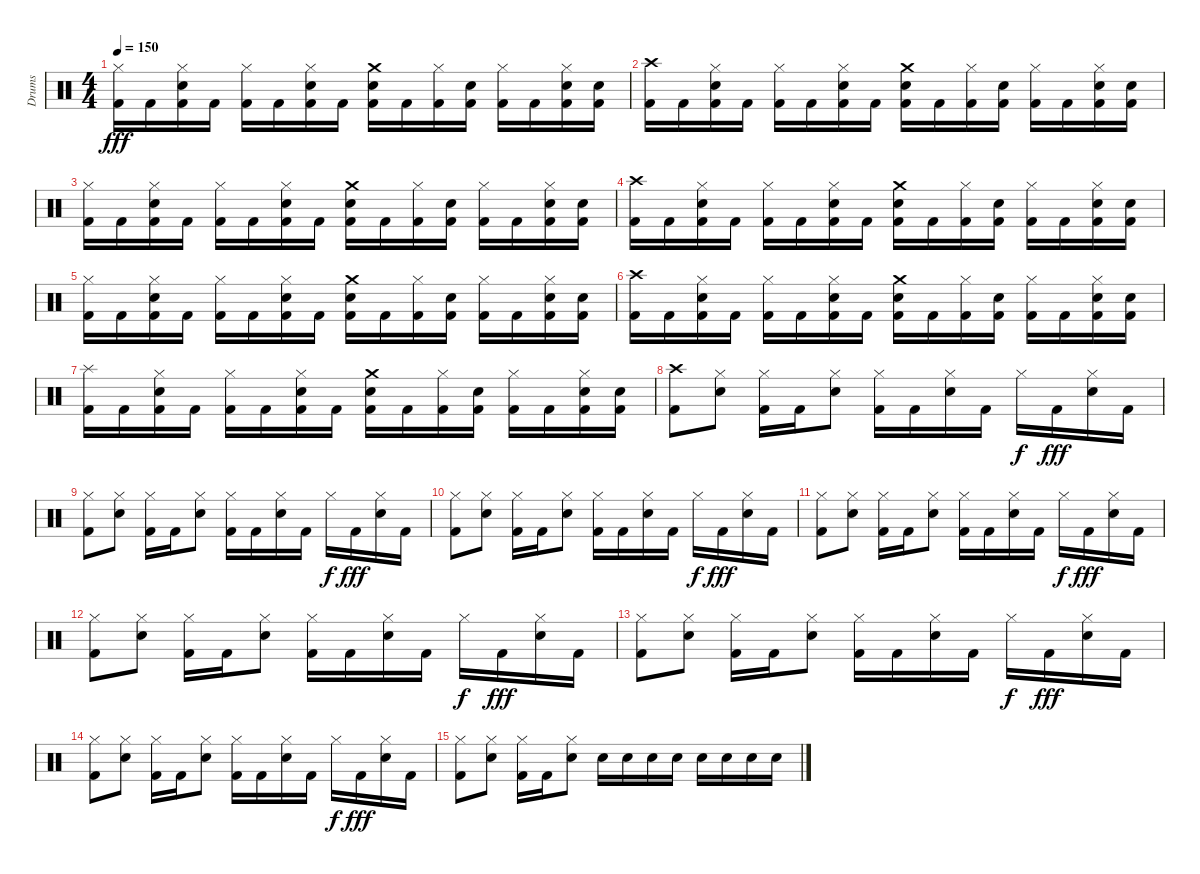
\track ("Drums" "Drums") {instrument percussion}
\staff {score}
\articulation defaults
\ts (4 4)
\tempo 150
\clef neutral
\ks c
("Kick (hit) 2" "Hi-Hat (closed)").16{dy fff} "Kick (hit) 2".16 ("Kick (hit) 2" "Hi-Hat (closed)" "Snare (hit) 2").16 "Kick (hit) 2".16 ("Kick (hit) 2" "Hi-Hat (closed)").16 "Kick (hit) 2".16 ("Kick (hit) 2" "Hi-Hat (closed)" "Snare (hit) 2").16 "Kick (hit) 2".16 ("Kick (hit) 2" "Crash medium (hit)" "Snare (hit) 2").16 "Kick (hit) 2".16 ("Kick (hit) 2" "Hi-Hat (closed)").16 ("Kick (hit) 2" "Snare (hit) 2").16 ("Kick (hit) 2" "Hi-Hat (closed)").16 "Kick (hit) 2".16 ("Kick (hit) 2" "Hi-Hat (closed)" "Snare (hit) 2").16 ("Kick (hit) 2" "Snare (hit) 2").16 |
("Kick (hit) 2" "Crash high (hit)").16 "Kick (hit) 2".16 ("Kick (hit) 2" "Hi-Hat (closed)" "Snare (hit) 2").16 "Kick (hit) 2".16 ("Kick (hit) 2" "Hi-Hat (closed)").16 "Kick (hit) 2".16 ("Kick (hit) 2" "Hi-Hat (closed)" "Snare (hit) 2").16 "Kick (hit) 2".16 ("Kick (hit) 2" "Crash medium (hit)" "Snare (hit) 2").16 "Kick (hit) 2".16 ("Kick (hit) 2" "Hi-Hat (closed)").16 ("Kick (hit) 2" "Snare (hit) 2").16 ("Kick (hit) 2" "Hi-Hat (closed)").16 "Kick (hit) 2".16 ("Kick (hit) 2" "Hi-Hat (closed)" "Snare (hit) 2").16 ("Kick (hit) 2" "Snare (hit) 2").16 |
("Kick (hit) 2" "Hi-Hat (closed)").16 "Kick (hit) 2".16 ("Kick (hit) 2" "Hi-Hat (closed)" "Snare (hit) 2").16 "Kick (hit) 2".16 ("Kick (hit) 2" "Hi-Hat (closed)").16 "Kick (hit) 2".16 ("Kick (hit) 2" "Hi-Hat (closed)" "Snare (hit) 2").16 "Kick (hit) 2".16 ("Kick (hit) 2" "Crash medium (hit)" "Snare (hit) 2").16 "Kick (hit) 2".16 ("Kick (hit) 2" "Hi-Hat (closed)").16 ("Kick (hit) 2" "Snare (hit) 2").16 ("Kick (hit) 2" "Hi-Hat (closed)").16 "Kick (hit) 2".16 ("Kick (hit) 2" "Hi-Hat (closed)" "Snare (hit) 2").16 ("Kick (hit) 2" "Snare (hit) 2").16 |
("Kick (hit) 2" "Crash high (hit)").16 "Kick (hit) 2".16 ("Kick (hit) 2" "Hi-Hat (closed)" "Snare (hit) 2").16 "Kick (hit) 2".16 ("Kick (hit) 2" "Hi-Hat (closed)").16 "Kick (hit) 2".16 ("Kick (hit) 2" "Hi-Hat (closed)" "Snare (hit) 2").16 "Kick (hit) 2".16 ("Kick (hit) 2" "Crash medium (hit)" "Snare (hit) 2").16 "Kick (hit) 2".16 ("Kick (hit) 2" "Hi-Hat (closed)").16 ("Kick (hit) 2" "Snare (hit) 2").16 ("Kick (hit) 2" "Hi-Hat (closed)").16 "Kick (hit) 2".16 ("Kick (hit) 2" "Hi-Hat (closed)" "Snare (hit) 2").16 ("Kick (hit) 2" "Snare (hit) 2").16 |
("Kick (hit) 2" "Hi-Hat (closed)").16 "Kick (hit) 2".16 ("Kick (hit) 2" "Hi-Hat (closed)" "Snare (hit) 2").16 "Kick (hit) 2".16 ("Kick (hit) 2" "Hi-Hat (closed)").16 "Kick (hit) 2".16 ("Kick (hit) 2" "Hi-Hat (closed)" "Snare (hit) 2").16 "Kick (hit) 2".16 ("Kick (hit) 2" "Crash medium (hit)" "Snare (hit) 2").16 "Kick (hit) 2".16 ("Kick (hit) 2" "Hi-Hat (closed)").16 ("Kick (hit) 2" "Snare (hit) 2").16 ("Kick (hit) 2" "Hi-Hat (closed)").16 "Kick (hit) 2".16 ("Kick (hit) 2" "Hi-Hat (closed)" "Snare (hit) 2").16 ("Kick (hit) 2" "Snare (hit) 2").16 |
("Kick (hit) 2" "Crash high (hit)").16 "Kick (hit) 2".16 ("Kick (hit) 2" "Hi-Hat (closed)" "Snare (hit) 2").16 "Kick (hit) 2".16 ("Kick (hit) 2" "Hi-Hat (closed)").16 "Kick (hit) 2".16 ("Kick (hit) 2" "Hi-Hat (closed)" "Snare (hit) 2").16 "Kick (hit) 2".16 ("Kick (hit) 2" "Crash medium (hit)" "Snare (hit) 2").16 "Kick (hit) 2".16 ("Kick (hit) 2" "Hi-Hat (closed)").16 ("Kick (hit) 2" "Snare (hit) 2").16 ("Kick (hit) 2" "Hi-Hat (closed)").16 "Kick (hit) 2".16 ("Kick (hit) 2" "Hi-Hat (closed)" "Snare (hit) 2").16 ("Kick (hit) 2" "Snare (hit) 2").16 |
("Kick (hit) 2" "Splash (hit)").16 "Kick (hit) 2".16 ("Kick (hit) 2" "Hi-Hat (closed)" "Snare (hit) 2").16 "Kick (hit) 2".16 ("Kick (hit) 2" "Hi-Hat (closed)").16 "Kick (hit) 2".16 ("Kick (hit) 2" "Hi-Hat (closed)" "Snare (hit) 2").16 "Kick (hit) 2".16 ("Kick (hit) 2" "Crash medium (hit)" "Snare (hit) 2").16 "Kick (hit) 2".16 ("Kick (hit) 2" "Hi-Hat (closed)").16 ("Kick (hit) 2" "Snare (hit) 2").16 ("Kick (hit) 2" "Hi-Hat (closed)").16 "Kick (hit) 2".16 ("Kick (hit) 2" "Hi-Hat (closed)" "Snare (hit) 2").16 ("Kick (hit) 2" "Snare (hit) 2").16 |
("Kick (hit) 2" "Crash high (hit)").8 ("Hi-Hat (closed)" "Snare (hit) 2").8 ("Kick (hit) 2" "Hi-Hat (closed)").16 "Kick (hit) 2".16 ("Hi-Hat (closed)" "Snare (hit) 2").8 ("Kick (hit) 2" "Hi-Hat (closed)").16 "Kick (hit) 2".16 ("Hi-Hat (closed)" "Snare (hit) 2").16 "Kick (hit) 2".16 "Hi-Hat (closed)".16{dy f} "Kick (hit) 2".16{dy fff} ("Hi-Hat (closed)" "Snare (hit) 2").16 "Kick (hit) 2".16 |
("Kick (hit) 2" "Hi-Hat (closed)").8 ("Hi-Hat (closed)" "Snare (hit) 2").8 ("Kick (hit) 2" "Hi-Hat (closed)").16 "Kick (hit) 2".16 ("Hi-Hat (closed)" "Snare (hit) 2").8 ("Kick (hit) 2" "Hi-Hat (closed)").16 "Kick (hit) 2".16 ("Hi-Hat (closed)" "Snare (hit) 2").16 "Kick (hit) 2".16 "Hi-Hat (closed)".16{dy f} "Kick (hit) 2".16{dy fff} ("Hi-Hat (closed)" "Snare (hit) 2").16 "Kick (hit) 2".16 |
("Kick (hit) 2" "Hi-Hat (closed)").8 ("Hi-Hat (closed)" "Snare (hit) 2").8 ("Kick (hit) 2" "Hi-Hat (closed)").16 "Kick (hit) 2".16 ("Hi-Hat (closed)" "Snare (hit) 2").8 ("Kick (hit) 2" "Hi-Hat (closed)").16 "Kick (hit) 2".16 ("Hi-Hat (closed)" "Snare (hit) 2").16 "Kick (hit) 2".16 "Hi-Hat (closed)".16{dy f} "Kick (hit) 2".16{dy fff} ("Hi-Hat (closed)" "Snare (hit) 2").16 "Kick (hit) 2".16 |
("Kick (hit) 2" "Hi-Hat (closed)").8 ("Hi-Hat (closed)" "Snare (hit) 2").8 ("Kick (hit) 2" "Hi-Hat (closed)").16 "Kick (hit) 2".16 ("Hi-Hat (closed)" "Snare (hit) 2").8 ("Kick (hit) 2" "Hi-Hat (closed)").16 "Kick (hit) 2".16 ("Hi-Hat (closed)" "Snare (hit) 2").16 "Kick (hit) 2".16 "Hi-Hat (closed)".16{dy f} "Kick (hit) 2".16{dy fff} ("Hi-Hat (closed)" "Snare (hit) 2").16 "Kick (hit) 2".16 |
("Kick (hit) 2" "Hi-Hat (closed)").8 ("Hi-Hat (closed)" "Snare (hit) 2").8 ("Kick (hit) 2" "Hi-Hat (closed)").16 "Kick (hit) 2".16 ("Hi-Hat (closed)" "Snare (hit) 2").8 ("Kick (hit) 2" "Hi-Hat (closed)").16 "Kick (hit) 2".16 ("Hi-Hat (closed)" "Snare (hit) 2").16 "Kick (hit) 2".16 "Hi-Hat (closed)".16{dy f} "Kick (hit) 2".16{dy fff} ("Hi-Hat (closed)" "Snare (hit) 2").16 "Kick (hit) 2".16 |
("Kick (hit) 2" "Hi-Hat (closed)").8 ("Hi-Hat (closed)" "Snare (hit) 2").8 ("Kick (hit) 2" "Hi-Hat (closed)").16 "Kick (hit) 2".16 ("Hi-Hat (closed)" "Snare (hit) 2").8 ("Kick (hit) 2" "Hi-Hat (closed)").16 "Kick (hit) 2".16 ("Hi-Hat (closed)" "Snare (hit) 2").16 "Kick (hit) 2".16 "Hi-Hat (closed)".16{dy f} "Kick (hit) 2".16{dy fff} ("Hi-Hat (closed)" "Snare (hit) 2").16 "Kick (hit) 2".16 |
("Kick (hit) 2" "Hi-Hat (closed)").8 ("Hi-Hat (closed)" "Snare (hit) 2").8 ("Kick (hit) 2" "Hi-Hat (closed)").16 "Kick (hit) 2".16 ("Hi-Hat (closed)" "Snare (hit) 2").8 ("Kick (hit) 2" "Hi-Hat (closed)").16 "Kick (hit) 2".16 ("Hi-Hat (closed)" "Snare (hit) 2").16 "Kick (hit) 2".16 "Hi-Hat (closed)".16{dy f} "Kick (hit) 2".16{dy fff} ("Hi-Hat (closed)" "Snare (hit) 2").16 "Kick (hit) 2".16 |
("Kick (hit) 2" "Hi-Hat (closed)").8 ("Hi-Hat (closed)" "Snare (hit) 2").8 ("Kick (hit) 2" "Hi-Hat (closed)").16 "Kick (hit) 2".16 ("Hi-Hat (closed)" "Snare (hit) 2").8 "Snare (hit) 2".16 "Snare (hit) 2".16 "Snare (hit) 2".16 "Snare (hit) 2".16 "Snare (hit) 2".16 "Snare (hit) 2".16 "Snare (hit) 2".16 "Snare (hit) 2".16
